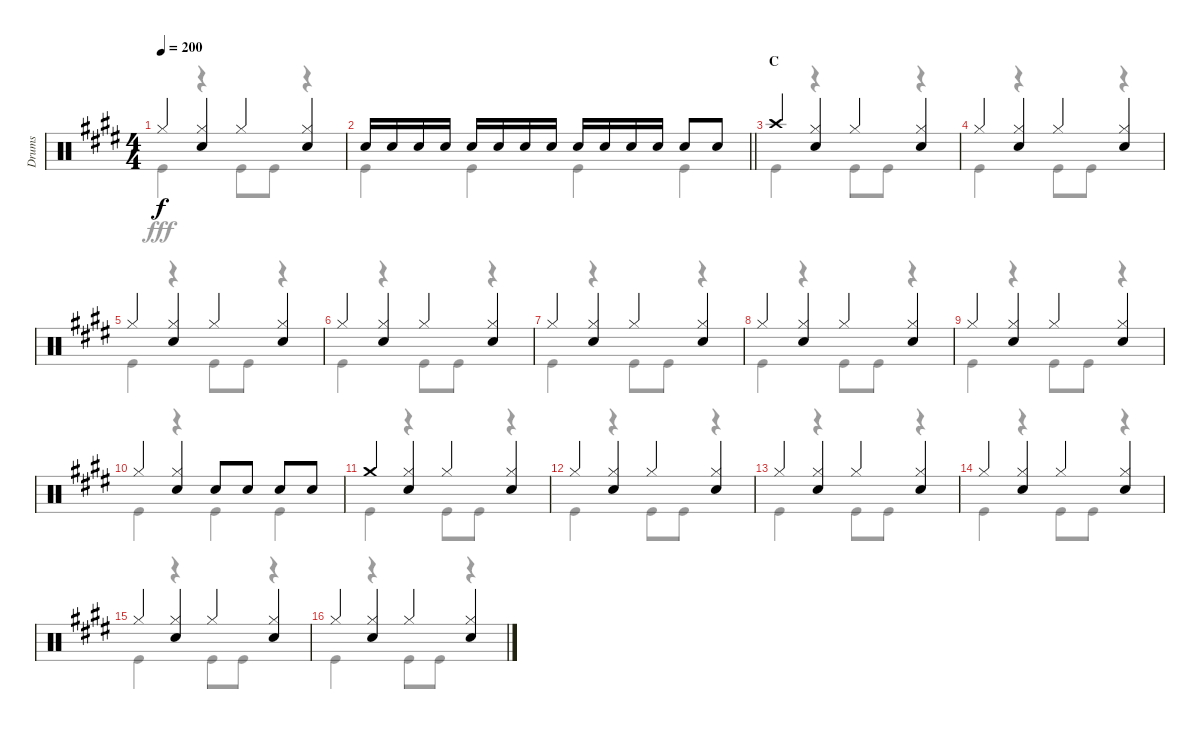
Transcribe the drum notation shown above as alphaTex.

\track ("Drums" "Drums") {instrument percussion}
\staff {score}
\articulation defaults
\voice
\ts (4 4)
\tempo 200
\clef neutral
\ks e "Hi-Hat (closed)".4{dy f}
("Hi-Hat (closed)" "Snare (hit) 2").4 "Hi-Hat (closed)".4 ("Hi-Hat (closed)" "Snare (hit) 2").4 |
\barLineRight lightlight "Snare (hit) 2".16 "Snare (hit) 2".16 "Snare (hit) 2".16 "Snare (hit) 2".16 "Snare (hit) 2".16 "Snare (hit) 2".16 "Snare (hit) 2".16 "Snare (hit) 2".16 "Snare (hit) 2".16 "Snare (hit) 2".16 "Snare (hit) 2".16 "Snare (hit) 2".16 "Snare (hit) 2".8 "Snare (hit) 2".8
|
\section ("" "C")
"Crash high (hit)".4 ("Hi-Hat (closed)" "Snare (hit) 2").4 "Hi-Hat (closed)".4 ("Hi-Hat (closed)" "Snare (hit) 2").4 |
"Hi-Hat (closed)".4 ("Hi-Hat (closed)" "Snare (hit) 2").4 "Hi-Hat (closed)".4 ("Hi-Hat (closed)" "Snare (hit) 2").4 |
"Hi-Hat (closed)".4 ("Hi-Hat (closed)" "Snare (hit) 2").4 "Hi-Hat (closed)".4 ("Hi-Hat (closed)" "Snare (hit) 2").4 |
"Hi-Hat (closed)".4 ("Hi-Hat (closed)" "Snare (hit) 2").4 "Hi-Hat (closed)".4 ("Hi-Hat (closed)" "Snare (hit) 2").4 |
"Hi-Hat (closed)".4 ("Hi-Hat (closed)" "Snare (hit) 2").4 "Hi-Hat (closed)".4 ("Hi-Hat (closed)" "Snare (hit) 2").4 |
"Hi-Hat (closed)".4 ("Hi-Hat (closed)" "Snare (hit) 2").4 "Hi-Hat (closed)".4 ("Hi-Hat (closed)" "Snare (hit) 2").4 |
"Hi-Hat (closed)".4 ("Hi-Hat (closed)" "Snare (hit) 2").4 "Hi-Hat (closed)".4 ("Hi-Hat (closed)" "Snare (hit) 2").4 |
"Hi-Hat (closed)".4 ("Hi-Hat (closed)" "Snare (hit) 2").4 "Snare (hit) 2".8 "Snare (hit) 2".8 "Snare (hit) 2".8 "Snare (hit) 2".8 |
"Crash medium (hit)".4 ("Hi-Hat (closed)" "Snare (hit) 2").4 "Hi-Hat (closed)".4 ("Hi-Hat (closed)" "Snare (hit) 2").4 |
"Hi-Hat (closed)".4 ("Hi-Hat (closed)" "Snare (hit) 2").4 "Hi-Hat (closed)".4 ("Hi-Hat (closed)" "Snare (hit) 2").4 |
"Hi-Hat (closed)".4 ("Hi-Hat (closed)" "Snare (hit) 2").4 "Hi-Hat (closed)".4 ("Hi-Hat (closed)" "Snare (hit) 2").4 |
"Hi-Hat (closed)".4 ("Hi-Hat (closed)" "Snare (hit) 2").4 "Hi-Hat (closed)".4 ("Hi-Hat (closed)" "Snare (hit) 2").4 |
"Hi-Hat (closed)".4 ("Hi-Hat (closed)" "Snare (hit) 2").4 "Hi-Hat (closed)".4 ("Hi-Hat (closed)" "Snare (hit) 2").4 |
"Hi-Hat (closed)".4 ("Hi-Hat (closed)" "Snare (hit) 2").4 "Hi-Hat (closed)".4 ("Hi-Hat (closed)" "Snare (hit) 2").4
\voice
\clef neutral
\ottava regular
\simile none
\ks e "Kick (hit)".4{dy fff}
r.4 "Kick (hit)".8 "Kick (hit)".8 r.4 |
\barLineRight lightlight "Kick (hit)".4 "Kick (hit)".4 "Kick (hit)".4 "Kick (hit)".4
|
"Kick (hit)".4 r.4 "Kick (hit)".8 "Kick (hit)".8 r.4 |
"Kick (hit)".4 r.4 "Kick (hit)".8 "Kick (hit)".8 r.4 |
"Kick (hit)".4 r.4 "Kick (hit)".8 "Kick (hit)".8 r.4 |
"Kick (hit)".4 r.4 "Kick (hit)".8 "Kick (hit)".8 r.4 |
"Kick (hit)".4 r.4 "Kick (hit)".8 "Kick (hit)".8 r.4 |
"Kick (hit)".4 r.4 "Kick (hit)".8 "Kick (hit)".8 r.4 |
"Kick (hit)".4 r.4 "Kick (hit)".8 "Kick (hit)".8 r.4 |
"Kick (hit)".4 r.4 "Kick (hit)".4 "Kick (hit)".4 |
"Kick (hit)".4 r.4 "Kick (hit)".8 "Kick (hit)".8 r.4 |
"Kick (hit)".4 r.4 "Kick (hit)".8 "Kick (hit)".8 r.4 |
"Kick (hit)".4 r.4 "Kick (hit)".8 "Kick (hit)".8 r.4 |
"Kick (hit)".4 r.4 "Kick (hit)".8 "Kick (hit)".8 r.4 |
"Kick (hit)".4 r.4 "Kick (hit)".8 "Kick (hit)".8 r.4 |
"Kick (hit)".4 r.4 "Kick (hit)".8 "Kick (hit)".8 r.4
